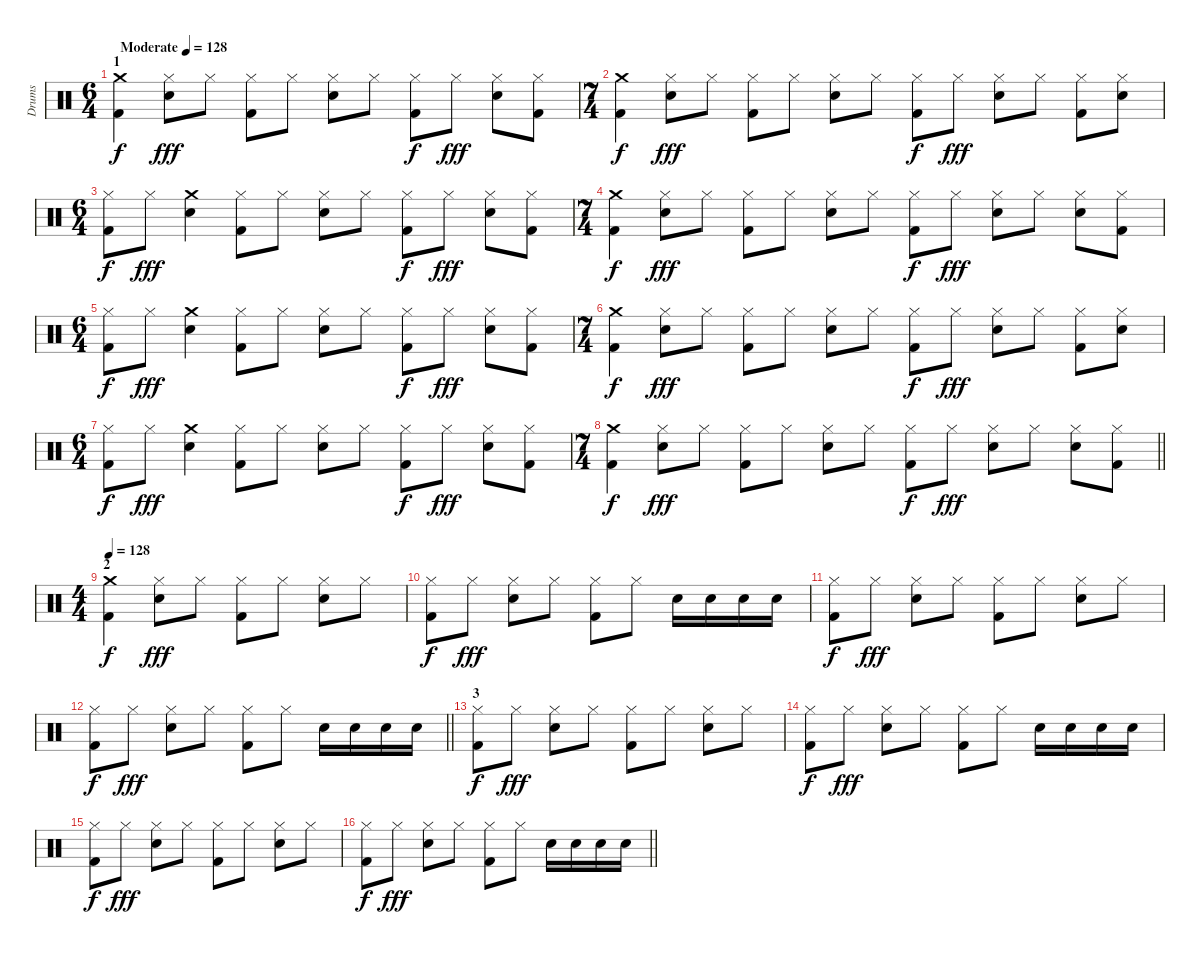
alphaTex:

\track ("Drums" "Drums") {instrument percussion}
\staff {score}
\articulation defaults
\ts (6 4)
\section ("" "1")
\tempo (128 "Moderate")
\clef neutral
\ks c
("Kick (hit) 2" "Crash medium (hit)").4{dy f} ("Hi-Hat (closed)" "Snare (hit) 2").8{dy fff} "Hi-Hat (closed)".8 ("Hi-Hat (closed)" "Kick (hit) 2").8 "Hi-Hat (closed)".8 ("Snare (hit) 2" "Hi-Hat (closed)").8 "Hi-Hat (closed)".8 ("Kick (hit) 2" "Hi-Hat (closed)").8{dy f} "Hi-Hat (closed)".8{dy fff} ("Snare (hit) 2" "Hi-Hat (closed)").8 ("Kick (hit) 2" "Hi-Hat (closed)").8 |
\ts (7 4)
("Kick (hit) 2" "Crash medium (hit)").4{dy f} ("Hi-Hat (closed)" "Snare (hit) 2").8{dy fff} "Hi-Hat (closed)".8 ("Hi-Hat (closed)" "Kick (hit) 2").8 "Hi-Hat (closed)".8 ("Snare (hit) 2" "Hi-Hat (closed)").8 "Hi-Hat (closed)".8 ("Kick (hit) 2" "Hi-Hat (closed)").8{dy f} "Hi-Hat (closed)".8{dy fff} ("Snare (hit) 2" "Hi-Hat (closed)").8 "Hi-Hat (closed)".8 ("Kick (hit) 2" "Hi-Hat (closed)").8 ("Snare (hit) 2" "Hi-Hat (closed)").8 |
\ts (6 4)
("Hi-Hat (closed)" "Kick (hit) 2").8{dy f} "Hi-Hat (closed)".8{dy fff} ("Snare (hit) 2" "Crash medium (hit)").4 ("Hi-Hat (closed)" "Kick (hit) 2").8 "Hi-Hat (closed)".8 ("Snare (hit) 2" "Hi-Hat (closed)").8 "Hi-Hat (closed)".8 ("Kick (hit) 2" "Hi-Hat (closed)").8{dy f} "Hi-Hat (closed)".8{dy fff} ("Snare (hit) 2" "Hi-Hat (closed)").8 ("Kick (hit) 2" "Hi-Hat (closed)").8 |
\ts (7 4)
("Crash medium (hit)" "Kick (hit) 2").4{dy f} ("Snare (hit) 2" "Hi-Hat (closed)").8{dy fff} "Hi-Hat (closed)".8 ("Hi-Hat (closed)" "Kick (hit) 2").8 "Hi-Hat (closed)".8 ("Snare (hit) 2" "Hi-Hat (closed)").8 "Hi-Hat (closed)".8 ("Kick (hit) 2" "Hi-Hat (closed)").8{dy f} "Hi-Hat (closed)".8{dy fff} ("Snare (hit) 2" "Hi-Hat (closed)").8 "Hi-Hat (closed)".8 ("Hi-Hat (closed)" "Snare (hit) 2").8 ("Kick (hit) 2" "Hi-Hat (closed)").8 |
\ts (6 4)
("Hi-Hat (closed)" "Kick (hit) 2").8{dy f} "Hi-Hat (closed)".8{dy fff} ("Snare (hit) 2" "Crash medium (hit)").4 ("Hi-Hat (closed)" "Kick (hit) 2").8 "Hi-Hat (closed)".8 ("Snare (hit) 2" "Hi-Hat (closed)").8 "Hi-Hat (closed)".8 ("Kick (hit) 2" "Hi-Hat (closed)").8{dy f} "Hi-Hat (closed)".8{dy fff} ("Snare (hit) 2" "Hi-Hat (closed)").8 ("Kick (hit) 2" "Hi-Hat (closed)").8 |
\ts (7 4)
("Crash medium (hit)" "Kick (hit) 2").4{dy f} ("Snare (hit) 2" "Hi-Hat (closed)").8{dy fff} "Hi-Hat (closed)".8 ("Hi-Hat (closed)" "Kick (hit) 2").8 "Hi-Hat (closed)".8 ("Snare (hit) 2" "Hi-Hat (closed)").8 "Hi-Hat (closed)".8 ("Kick (hit) 2" "Hi-Hat (closed)").8{dy f} "Hi-Hat (closed)".8{dy fff} ("Snare (hit) 2" "Hi-Hat (closed)").8 "Hi-Hat (closed)".8 ("Kick (hit) 2" "Hi-Hat (closed)").8 ("Snare (hit) 2" "Hi-Hat (closed)").8 |
\ts (6 4)
("Hi-Hat (closed)" "Kick (hit) 2").8{dy f} "Hi-Hat (closed)".8{dy fff} ("Snare (hit) 2" "Crash medium (hit)").4 ("Hi-Hat (closed)" "Kick (hit) 2").8 "Hi-Hat (closed)".8 ("Snare (hit) 2" "Hi-Hat (closed)").8 "Hi-Hat (closed)".8 ("Kick (hit) 2" "Hi-Hat (closed)").8{dy f} "Hi-Hat (closed)".8{dy fff} ("Snare (hit) 2" "Hi-Hat (closed)").8 ("Kick (hit) 2" "Hi-Hat (closed)").8 |
\ts (7 4)
\barLineRight lightlight
("Crash medium (hit)" "Kick (hit) 2").4{dy f} ("Snare (hit) 2" "Hi-Hat (closed)").8{dy fff} "Hi-Hat (closed)".8 ("Hi-Hat (closed)" "Kick (hit) 2").8 "Hi-Hat (closed)".8 ("Snare (hit) 2" "Hi-Hat (closed)").8 "Hi-Hat (closed)".8 ("Kick (hit) 2" "Hi-Hat (closed)").8{dy f} "Hi-Hat (closed)".8{dy fff} ("Snare (hit) 2" "Hi-Hat (closed)").8 "Hi-Hat (closed)".8 ("Hi-Hat (closed)" "Snare (hit) 2").8 ("Kick (hit) 2" "Hi-Hat (closed)").8 |
\ts (4 4)
\section ("" "2")
\tempo 128
("Kick (hit) 2" "Crash medium (hit)").4{dy f} ("Hi-Hat (closed)" "Snare (hit) 2").8{dy fff} "Hi-Hat (closed)".8 ("Hi-Hat (closed)" "Kick (hit) 2").8 "Hi-Hat (closed)".8 ("Snare (hit) 2" "Hi-Hat (closed)").8 "Hi-Hat (closed)".8 |
("Hi-Hat (closed)" "Kick (hit) 2").8{dy f} "Hi-Hat (closed)".8{dy fff} ("Snare (hit) 2" "Hi-Hat (closed)").8 "Hi-Hat (closed)".8 ("Hi-Hat (closed)" "Kick (hit) 2").8 "Hi-Hat (closed)".8 "Snare (hit) 2".16 "Snare (hit) 2".16 "Snare (hit) 2".16 "Snare (hit) 2".16 |
("Hi-Hat (closed)" "Kick (hit) 2").8{dy f} "Hi-Hat (closed)".8{dy fff} ("Snare (hit) 2" "Hi-Hat (closed)").8 "Hi-Hat (closed)".8 ("Hi-Hat (closed)" "Kick (hit) 2").8 "Hi-Hat (closed)".8 ("Snare (hit) 2" "Hi-Hat (closed)").8 "Hi-Hat (closed)".8 |
\barLineRight lightlight
("Hi-Hat (closed)" "Kick (hit) 2").8{dy f} "Hi-Hat (closed)".8{dy fff} ("Snare (hit) 2" "Hi-Hat (closed)").8 "Hi-Hat (closed)".8 ("Hi-Hat (closed)" "Kick (hit) 2").8 "Hi-Hat (closed)".8 "Snare (hit) 2".16 "Snare (hit) 2".16 "Snare (hit) 2".16 "Snare (hit) 2".16 |
\section ("" "3")
("Hi-Hat (closed)" "Kick (hit) 2").8{dy f} "Hi-Hat (closed)".8{dy fff} ("Snare (hit) 2" "Hi-Hat (closed)").8 "Hi-Hat (closed)".8 ("Hi-Hat (closed)" "Kick (hit) 2").8 "Hi-Hat (closed)".8 ("Snare (hit) 2" "Hi-Hat (closed)").8 "Hi-Hat (closed)".8 |
("Hi-Hat (closed)" "Kick (hit) 2").8{dy f} "Hi-Hat (closed)".8{dy fff} ("Snare (hit) 2" "Hi-Hat (closed)").8 "Hi-Hat (closed)".8 ("Hi-Hat (closed)" "Kick (hit) 2").8 "Hi-Hat (closed)".8 "Snare (hit) 2".16 "Snare (hit) 2".16 "Snare (hit) 2".16 "Snare (hit) 2".16 |
("Hi-Hat (closed)" "Kick (hit) 2").8{dy f} "Hi-Hat (closed)".8{dy fff} ("Snare (hit) 2" "Hi-Hat (closed)").8 "Hi-Hat (closed)".8 ("Hi-Hat (closed)" "Kick (hit) 2").8 "Hi-Hat (closed)".8 ("Snare (hit) 2" "Hi-Hat (closed)").8 "Hi-Hat (closed)".8 |
\barLineRight lightlight
("Hi-Hat (closed)" "Kick (hit) 2").8{dy f} "Hi-Hat (closed)".8{dy fff} ("Snare (hit) 2" "Hi-Hat (closed)").8 "Hi-Hat (closed)".8 ("Hi-Hat (closed)" "Kick (hit) 2").8 "Hi-Hat (closed)".8 "Snare (hit) 2".16 "Snare (hit) 2".16 "Snare (hit) 2".16 "Snare (hit) 2".16
